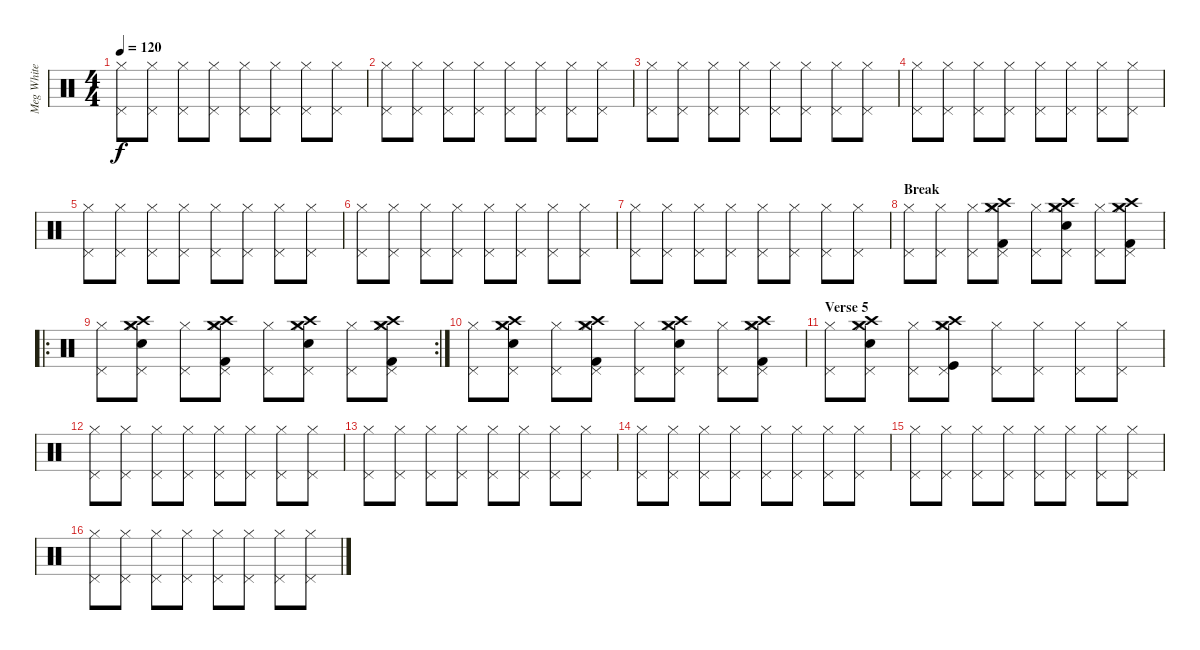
\track ("Meg White" "Meg White") {instrument percussion}
\staff {score}
\articulation defaults
\ts (4 4)
\tempo 120
\clef neutral
\ks c
("Hi-Hat (closed)" "Pedal Hi-Hat (hit)").8{dy f} ("Hi-Hat (closed)" "Pedal Hi-Hat (hit)").8 ("Hi-Hat (closed)" "Pedal Hi-Hat (hit)").8 ("Hi-Hat (closed)" "Pedal Hi-Hat (hit)").8 ("Hi-Hat (closed)" "Pedal Hi-Hat (hit)").8 ("Hi-Hat (closed)" "Pedal Hi-Hat (hit)").8 ("Pedal Hi-Hat (hit)" "Hi-Hat (closed)").8 ("Pedal Hi-Hat (hit)" "Hi-Hat (closed)").8 |
("Hi-Hat (closed)" "Pedal Hi-Hat (hit)").8 ("Hi-Hat (closed)" "Pedal Hi-Hat (hit)").8 ("Hi-Hat (closed)" "Pedal Hi-Hat (hit)").8 ("Hi-Hat (closed)" "Pedal Hi-Hat (hit)").8 ("Hi-Hat (closed)" "Pedal Hi-Hat (hit)").8 ("Hi-Hat (closed)" "Pedal Hi-Hat (hit)").8 ("Pedal Hi-Hat (hit)" "Hi-Hat (closed)").8 ("Pedal Hi-Hat (hit)" "Hi-Hat (closed)").8 |
("Hi-Hat (closed)" "Pedal Hi-Hat (hit)").8 ("Hi-Hat (closed)" "Pedal Hi-Hat (hit)").8 ("Hi-Hat (closed)" "Pedal Hi-Hat (hit)").8 ("Hi-Hat (closed)" "Pedal Hi-Hat (hit)").8 ("Hi-Hat (closed)" "Pedal Hi-Hat (hit)").8 ("Hi-Hat (closed)" "Pedal Hi-Hat (hit)").8 ("Pedal Hi-Hat (hit)" "Hi-Hat (closed)").8 ("Pedal Hi-Hat (hit)" "Hi-Hat (closed)").8 |
("Hi-Hat (closed)" "Pedal Hi-Hat (hit)").8 ("Hi-Hat (closed)" "Pedal Hi-Hat (hit)").8 ("Hi-Hat (closed)" "Pedal Hi-Hat (hit)").8 ("Hi-Hat (closed)" "Pedal Hi-Hat (hit)").8 ("Hi-Hat (closed)" "Pedal Hi-Hat (hit)").8 ("Hi-Hat (closed)" "Pedal Hi-Hat (hit)").8 ("Pedal Hi-Hat (hit)" "Hi-Hat (closed)").8 ("Pedal Hi-Hat (hit)" "Hi-Hat (closed)").8 |
("Hi-Hat (closed)" "Pedal Hi-Hat (hit)").8 ("Hi-Hat (closed)" "Pedal Hi-Hat (hit)").8 ("Hi-Hat (closed)" "Pedal Hi-Hat (hit)").8 ("Hi-Hat (closed)" "Pedal Hi-Hat (hit)").8 ("Hi-Hat (closed)" "Pedal Hi-Hat (hit)").8 ("Hi-Hat (closed)" "Pedal Hi-Hat (hit)").8 ("Pedal Hi-Hat (hit)" "Hi-Hat (closed)").8 ("Pedal Hi-Hat (hit)" "Hi-Hat (closed)").8 |
("Hi-Hat (closed)" "Pedal Hi-Hat (hit)").8 ("Hi-Hat (closed)" "Pedal Hi-Hat (hit)").8 ("Hi-Hat (closed)" "Pedal Hi-Hat (hit)").8 ("Hi-Hat (closed)" "Pedal Hi-Hat (hit)").8 ("Hi-Hat (closed)" "Pedal Hi-Hat (hit)").8 ("Hi-Hat (closed)" "Pedal Hi-Hat (hit)").8 ("Pedal Hi-Hat (hit)" "Hi-Hat (closed)").8 ("Pedal Hi-Hat (hit)" "Hi-Hat (closed)").8 |
("Hi-Hat (closed)" "Pedal Hi-Hat (hit)").8 ("Hi-Hat (closed)" "Pedal Hi-Hat (hit)").8 ("Hi-Hat (closed)" "Pedal Hi-Hat (hit)").8 ("Hi-Hat (closed)" "Pedal Hi-Hat (hit)").8 ("Hi-Hat (closed)" "Pedal Hi-Hat (hit)").8 ("Hi-Hat (closed)" "Pedal Hi-Hat (hit)").8 ("Pedal Hi-Hat (hit)" "Hi-Hat (closed)").8 ("Pedal Hi-Hat (hit)" "Hi-Hat (closed)").8 |
\section ("" "Break")
("Hi-Hat (closed)" "Pedal Hi-Hat (hit)").8 ("Hi-Hat (closed)" "Pedal Hi-Hat (hit)").8 ("Hi-Hat (closed)" "Pedal Hi-Hat (hit)").8 ("Hi-Hat (closed)" "Pedal Hi-Hat (hit)" "Kick (hit) 2" "Crash high (hit)" "Crash medium (hit)").8 ("Hi-Hat (closed)" "Pedal Hi-Hat (hit)").8 ("Hi-Hat (closed)" "Pedal Hi-Hat (hit)" "Electric Snare (hit)" "Crash high (hit)" "Crash medium (hit)").8 ("Pedal Hi-Hat (hit)" "Hi-Hat (closed)").8 ("Pedal Hi-Hat (hit)" "Hi-Hat (closed)" "Kick (hit) 2" "Crash high (hit)" "Crash medium (hit)").8 |
\ro
\rc 2
("Hi-Hat (closed)" "Pedal Hi-Hat (hit)").8 ("Hi-Hat (closed)" "Pedal Hi-Hat (hit)" "Electric Snare (hit)" "Crash high (hit)" "Crash medium (hit)").8 ("Hi-Hat (closed)" "Pedal Hi-Hat (hit)").8 ("Hi-Hat (closed)" "Pedal Hi-Hat (hit)" "Kick (hit) 2" "Crash high (hit)" "Crash medium (hit)").8 ("Hi-Hat (closed)" "Pedal Hi-Hat (hit)").8 ("Hi-Hat (closed)" "Pedal Hi-Hat (hit)" "Electric Snare (hit)" "Crash high (hit)" "Crash medium (hit)").8 ("Pedal Hi-Hat (hit)" "Hi-Hat (closed)").8 ("Pedal Hi-Hat (hit)" "Hi-Hat (closed)" "Kick (hit) 2" "Crash high (hit)" "Crash medium (hit)").8 |
("Hi-Hat (closed)" "Pedal Hi-Hat (hit)").8 ("Hi-Hat (closed)" "Pedal Hi-Hat (hit)" "Electric Snare (hit)" "Crash high (hit)" "Crash medium (hit)").8 ("Hi-Hat (closed)" "Pedal Hi-Hat (hit)").8 ("Hi-Hat (closed)" "Pedal Hi-Hat (hit)" "Kick (hit) 2" "Crash high (hit)" "Crash medium (hit)").8 ("Hi-Hat (closed)" "Pedal Hi-Hat (hit)").8 ("Hi-Hat (closed)" "Pedal Hi-Hat (hit)" "Electric Snare (hit)" "Crash high (hit)" "Crash medium (hit)").8 ("Pedal Hi-Hat (hit)" "Hi-Hat (closed)").8 ("Pedal Hi-Hat (hit)" "Hi-Hat (closed)" "Kick (hit) 2" "Crash high (hit)" "Crash medium (hit)").8 |
\section ("" "Verse 5")
("Hi-Hat (closed)" "Pedal Hi-Hat (hit)").8 ("Hi-Hat (closed)" "Pedal Hi-Hat (hit)" "Electric Snare (hit)" "Crash high (hit)" "Crash medium (hit)").8 ("Hi-Hat (closed)" "Pedal Hi-Hat (hit)").8 ("Hi-Hat (closed)" "Pedal Hi-Hat (hit)" "Kick (hit)" "Crash high (hit)" "Crash medium (hit)").8 ("Hi-Hat (closed)" "Pedal Hi-Hat (hit)").8 ("Hi-Hat (closed)" "Pedal Hi-Hat (hit)").8 ("Pedal Hi-Hat (hit)" "Hi-Hat (closed)").8 ("Pedal Hi-Hat (hit)" "Hi-Hat (closed)").8 |
("Hi-Hat (closed)" "Pedal Hi-Hat (hit)").8 ("Hi-Hat (closed)" "Pedal Hi-Hat (hit)").8 ("Hi-Hat (closed)" "Pedal Hi-Hat (hit)").8 ("Hi-Hat (closed)" "Pedal Hi-Hat (hit)").8 ("Hi-Hat (closed)" "Pedal Hi-Hat (hit)").8 ("Hi-Hat (closed)" "Pedal Hi-Hat (hit)").8 ("Pedal Hi-Hat (hit)" "Hi-Hat (closed)").8 ("Pedal Hi-Hat (hit)" "Hi-Hat (closed)").8 |
("Hi-Hat (closed)" "Pedal Hi-Hat (hit)").8 ("Hi-Hat (closed)" "Pedal Hi-Hat (hit)").8 ("Hi-Hat (closed)" "Pedal Hi-Hat (hit)").8 ("Hi-Hat (closed)" "Pedal Hi-Hat (hit)").8 ("Hi-Hat (closed)" "Pedal Hi-Hat (hit)").8 ("Hi-Hat (closed)" "Pedal Hi-Hat (hit)").8 ("Pedal Hi-Hat (hit)" "Hi-Hat (closed)").8 ("Pedal Hi-Hat (hit)" "Hi-Hat (closed)").8 |
("Hi-Hat (closed)" "Pedal Hi-Hat (hit)").8 ("Hi-Hat (closed)" "Pedal Hi-Hat (hit)").8 ("Hi-Hat (closed)" "Pedal Hi-Hat (hit)").8 ("Hi-Hat (closed)" "Pedal Hi-Hat (hit)").8 ("Hi-Hat (closed)" "Pedal Hi-Hat (hit)").8 ("Hi-Hat (closed)" "Pedal Hi-Hat (hit)").8 ("Pedal Hi-Hat (hit)" "Hi-Hat (closed)").8 ("Pedal Hi-Hat (hit)" "Hi-Hat (closed)").8 |
("Hi-Hat (closed)" "Pedal Hi-Hat (hit)").8 ("Hi-Hat (closed)" "Pedal Hi-Hat (hit)").8 ("Hi-Hat (closed)" "Pedal Hi-Hat (hit)").8 ("Hi-Hat (closed)" "Pedal Hi-Hat (hit)").8 ("Hi-Hat (closed)" "Pedal Hi-Hat (hit)").8 ("Hi-Hat (closed)" "Pedal Hi-Hat (hit)").8 ("Pedal Hi-Hat (hit)" "Hi-Hat (closed)").8 ("Pedal Hi-Hat (hit)" "Hi-Hat (closed)").8 |
("Hi-Hat (closed)" "Pedal Hi-Hat (hit)").8 ("Hi-Hat (closed)" "Pedal Hi-Hat (hit)").8 ("Hi-Hat (closed)" "Pedal Hi-Hat (hit)").8 ("Hi-Hat (closed)" "Pedal Hi-Hat (hit)").8 ("Hi-Hat (closed)" "Pedal Hi-Hat (hit)").8 ("Hi-Hat (closed)" "Pedal Hi-Hat (hit)").8 ("Pedal Hi-Hat (hit)" "Hi-Hat (closed)").8 ("Pedal Hi-Hat (hit)" "Hi-Hat (closed)").8
